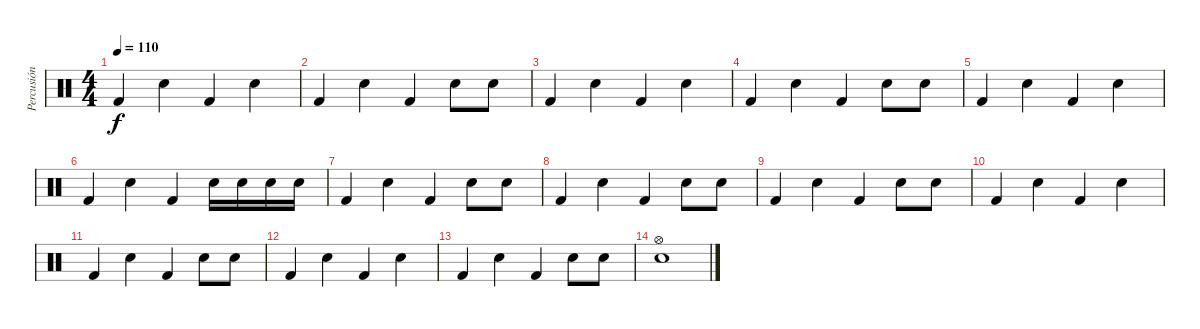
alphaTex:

\track ("Percusión" "Percusión") {instrument percussion}
\staff {score}
\articulation defaults
\ts (4 4)
\tempo 110
\clef neutral
\ks c "Kick (hit) 2".4{dy f} "Snare (hit) 2".4 "Kick (hit) 2".4 "Snare (hit) 2".4
|
"Kick (hit) 2".4 "Snare (hit) 2".4 "Kick (hit) 2".4 "Snare (hit) 2".8 "Snare (hit) 2".8 |
"Kick (hit) 2".4 "Snare (hit) 2".4 "Kick (hit) 2".4 "Snare (hit) 2".4 |
"Kick (hit) 2".4 "Snare (hit) 2".4 "Kick (hit) 2".4 "Snare (hit) 2".8 "Snare (hit) 2".8 |
"Kick (hit) 2".4 "Snare (hit) 2".4 "Kick (hit) 2".4 "Snare (hit) 2".4 |
"Kick (hit) 2".4 "Snare (hit) 2".4 "Kick (hit) 2".4 "Snare (hit) 2".16 "Snare (hit) 2".16 "Snare (hit) 2".16 "Snare (hit) 2".16 |
"Kick (hit) 2".4 "Snare (hit) 2".4 "Kick (hit) 2".4 "Snare (hit) 2".8 "Snare (hit) 2".8 |
"Kick (hit) 2".4 "Snare (hit) 2".4 "Kick (hit) 2".4 "Snare (hit) 2".8 "Snare (hit) 2".8 |
"Kick (hit) 2".4 "Snare (hit) 2".4 "Kick (hit) 2".4 "Snare (hit) 2".8 "Snare (hit) 2".8 |
"Kick (hit) 2".4 "Snare (hit) 2".4 "Kick (hit) 2".4 "Snare (hit) 2".4 |
"Kick (hit) 2".4 "Snare (hit) 2".4 "Kick (hit) 2".4 "Snare (hit) 2".8 "Snare (hit) 2".8 |
"Kick (hit) 2".4 "Snare (hit) 2".4 "Kick (hit) 2".4 "Snare (hit) 2".4 |
"Kick (hit) 2".4 "Snare (hit) 2".4 "Kick (hit) 2".4 "Snare (hit) 2".8 "Snare (hit) 2".8 |
("Snare (hit) 2" "Hi-Hat (open)").1
